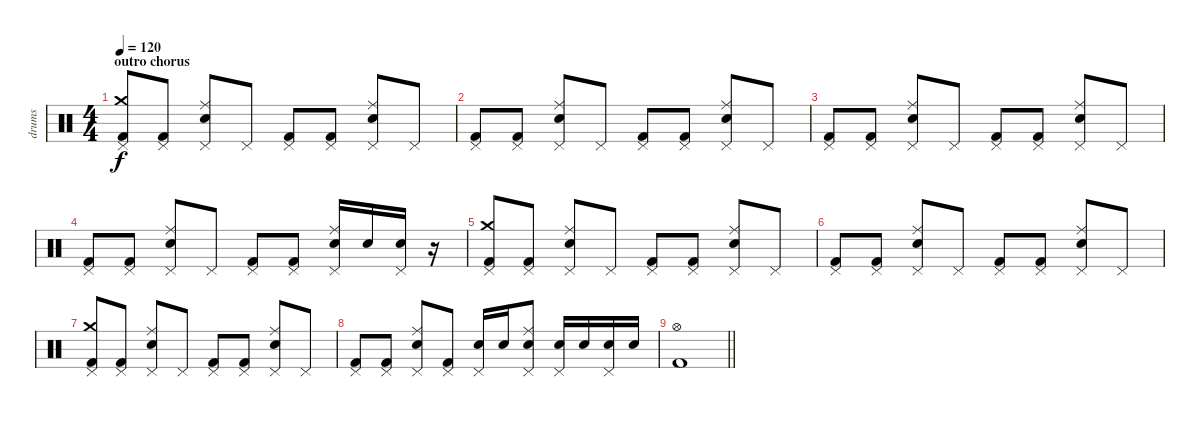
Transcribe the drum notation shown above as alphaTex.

\track ("drums" "drums") {instrument percussion}
\staff {score}
\articulation defaults
\ts (4 4)
\section ("" "outro chorus")
\tempo 120
\clef neutral
\ks c
("Pedal Hi-Hat (hit)" "Crash medium (hit)" "Kick (hit) 2").8{dy f} ("Pedal Hi-Hat (hit)" "Kick (hit) 2").8 ("Pedal Hi-Hat (hit)" "Ride (middle)" "Snare (hit) 2").8 "Pedal Hi-Hat (hit)".8 ("Pedal Hi-Hat (hit)" "Kick (hit) 2").8 ("Pedal Hi-Hat (hit)" "Kick (hit) 2").8 ("Pedal Hi-Hat (hit)" "Ride (middle)" "Snare (hit) 2").8 "Pedal Hi-Hat (hit)".8 |
("Pedal Hi-Hat (hit)" "Kick (hit) 2").8 ("Pedal Hi-Hat (hit)" "Kick (hit) 2").8 ("Pedal Hi-Hat (hit)" "Ride (middle)" "Snare (hit) 2").8 "Pedal Hi-Hat (hit)".8 ("Pedal Hi-Hat (hit)" "Kick (hit) 2").8 ("Pedal Hi-Hat (hit)" "Kick (hit) 2").8 ("Pedal Hi-Hat (hit)" "Ride (middle)" "Snare (hit) 2").8 "Pedal Hi-Hat (hit)".8 |
("Pedal Hi-Hat (hit)" "Kick (hit) 2").8 ("Pedal Hi-Hat (hit)" "Kick (hit) 2").8 ("Pedal Hi-Hat (hit)" "Ride (middle)" "Snare (hit) 2").8 "Pedal Hi-Hat (hit)".8 ("Pedal Hi-Hat (hit)" "Kick (hit) 2").8 ("Pedal Hi-Hat (hit)" "Kick (hit) 2").8 ("Pedal Hi-Hat (hit)" "Ride (middle)" "Snare (hit) 2").8 "Pedal Hi-Hat (hit)".8 |
("Pedal Hi-Hat (hit)" "Kick (hit) 2").8 ("Pedal Hi-Hat (hit)" "Kick (hit) 2").8 ("Pedal Hi-Hat (hit)" "Ride (middle)" "Snare (hit) 2").8 "Pedal Hi-Hat (hit)".8 ("Pedal Hi-Hat (hit)" "Kick (hit) 2").8 ("Pedal Hi-Hat (hit)" "Kick (hit) 2").8 ("Pedal Hi-Hat (hit)" "Ride (middle)" "Snare (hit) 2").16 "Snare (hit) 2".16 ("Pedal Hi-Hat (hit)" "Snare (hit) 2").16 r.16 |
("Pedal Hi-Hat (hit)" "Crash medium (hit)" "Kick (hit) 2").8 ("Pedal Hi-Hat (hit)" "Kick (hit) 2").8 ("Pedal Hi-Hat (hit)" "Ride (middle)" "Snare (hit) 2").8 "Pedal Hi-Hat (hit)".8 ("Pedal Hi-Hat (hit)" "Kick (hit) 2").8 ("Pedal Hi-Hat (hit)" "Kick (hit) 2").8 ("Pedal Hi-Hat (hit)" "Ride (middle)" "Snare (hit) 2").8 "Pedal Hi-Hat (hit)".8 |
("Pedal Hi-Hat (hit)" "Kick (hit) 2").8 ("Pedal Hi-Hat (hit)" "Kick (hit) 2").8 ("Pedal Hi-Hat (hit)" "Ride (middle)" "Snare (hit) 2").8 "Pedal Hi-Hat (hit)".8 ("Pedal Hi-Hat (hit)" "Kick (hit) 2").8 ("Pedal Hi-Hat (hit)" "Kick (hit) 2").8 ("Pedal Hi-Hat (hit)" "Ride (middle)" "Snare (hit) 2").8 "Pedal Hi-Hat (hit)".8 |
("Pedal Hi-Hat (hit)" "Crash medium (hit)" "Kick (hit) 2").8 ("Pedal Hi-Hat (hit)" "Kick (hit) 2").8 ("Pedal Hi-Hat (hit)" "Ride (middle)" "Snare (hit) 2").8 "Pedal Hi-Hat (hit)".8 ("Pedal Hi-Hat (hit)" "Kick (hit) 2").8 ("Pedal Hi-Hat (hit)" "Kick (hit) 2").8 ("Pedal Hi-Hat (hit)" "Ride (middle)" "Snare (hit) 2").8 "Pedal Hi-Hat (hit)".8 |
("Pedal Hi-Hat (hit)" "Kick (hit) 2").8 ("Pedal Hi-Hat (hit)" "Kick (hit) 2").8 ("Pedal Hi-Hat (hit)" "Ride (middle)" "Snare (hit) 2").8 ("Pedal Hi-Hat (hit)" "Kick (hit) 2").8 ("Pedal Hi-Hat (hit)" "Snare (hit) 2").16 "Snare (hit) 2".16 ("Pedal Hi-Hat (hit)" "Ride (middle)" "Snare (hit) 2").8 ("Pedal Hi-Hat (hit)" "Snare (hit) 2").16 "Snare (hit) 2".16 ("Pedal Hi-Hat (hit)" "Snare (hit) 2").16 "Snare (hit) 2".16 |
\barLineRight lightlight
("Hi-Hat (open)" "Kick (hit) 2").1
